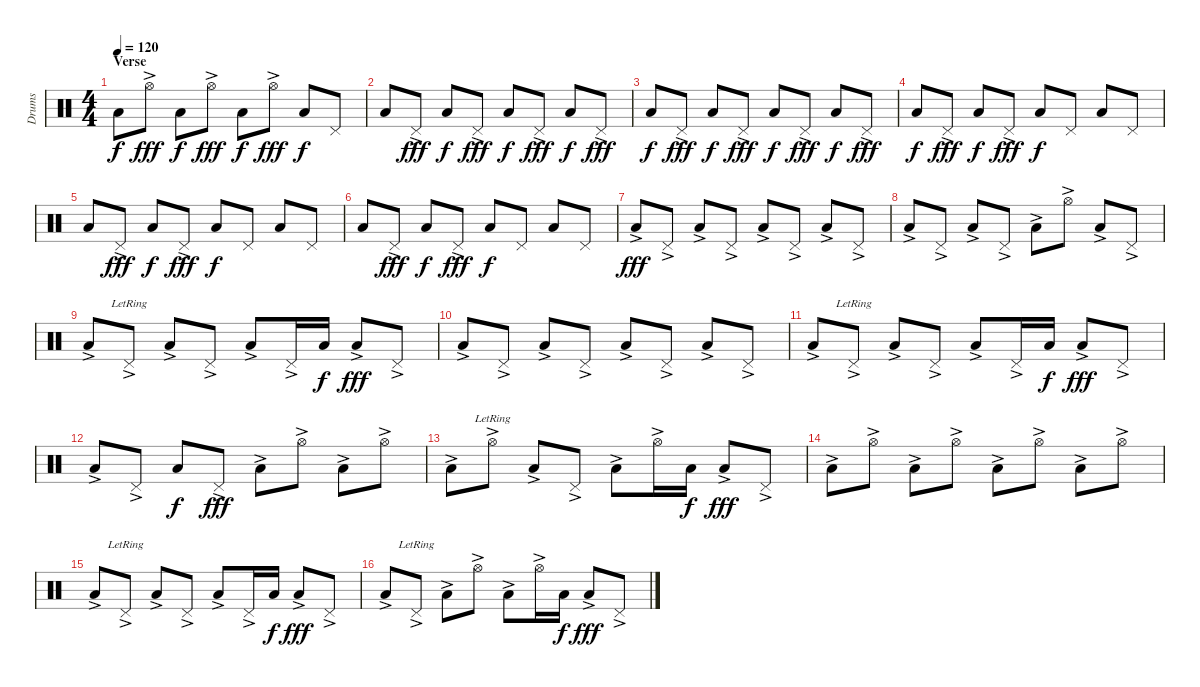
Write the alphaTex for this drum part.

\track ("Drums" "Drums") {instrument percussion}
\staff {score}
\articulation defaults
\ts (4 4)
\section ("" "Verse")
\tempo 120
\clef neutral
\ks c "Low Floor Tom (hit)".8{dy f} "Hi-Hat (open)"{ac}.8{dy fff} "Low Floor Tom (hit)".8{dy f} "Hi-Hat (open)"{ac}.8{dy fff} "Low Floor Tom (hit)".8{dy f} "Hi-Hat (open)"{ac}.8{dy fff} "Low Floor Tom (hit)".8{dy f} "Pedal Hi-Hat (hit)".8
|
"Low Floor Tom (hit)".8 "Pedal Hi-Hat (hit)"{ac}.8{dy fff} "Low Floor Tom (hit)".8{dy f} "Pedal Hi-Hat (hit)"{ac}.8{dy fff} "Low Floor Tom (hit)".8{dy f} "Pedal Hi-Hat (hit)"{ac}.8{dy fff} "Low Floor Tom (hit)".8{dy f} "Pedal Hi-Hat (hit)"{ac}.8{dy fff} |
"Low Floor Tom (hit)".8{dy f} "Pedal Hi-Hat (hit)"{ac}.8{dy fff} "Low Floor Tom (hit)".8{dy f} "Pedal Hi-Hat (hit)"{ac}.8{dy fff} "Low Floor Tom (hit)".8{dy f} "Pedal Hi-Hat (hit)"{ac}.8{dy fff} "Low Floor Tom (hit)".8{dy f} "Pedal Hi-Hat (hit)"{ac}.8{dy fff} |
"Low Floor Tom (hit)".8{dy f} "Pedal Hi-Hat (hit)"{ac}.8{dy fff} "Low Floor Tom (hit)".8{dy f} "Pedal Hi-Hat (hit)"{ac}.8{dy fff} "Low Floor Tom (hit)".8{dy f} "Pedal Hi-Hat (hit)".8 "Low Floor Tom (hit)".8 "Pedal Hi-Hat (hit)".8 |
"Low Floor Tom (hit)".8 "Pedal Hi-Hat (hit)"{ac}.8{dy fff} "Low Floor Tom (hit)".8{dy f} "Pedal Hi-Hat (hit)"{ac}.8{dy fff} "Low Floor Tom (hit)".8{dy f} "Pedal Hi-Hat (hit)".8 "Low Floor Tom (hit)".8 "Pedal Hi-Hat (hit)".8 |
"Low Floor Tom (hit)".8 "Pedal Hi-Hat (hit)"{ac}.8{dy fff} "Low Floor Tom (hit)".8{dy f} "Pedal Hi-Hat (hit)"{ac}.8{dy fff} "Low Floor Tom (hit)".8{dy f} "Pedal Hi-Hat (hit)".8 "Low Floor Tom (hit)".8 "Pedal Hi-Hat (hit)".8 |
"Low Floor Tom (hit)"{ac}.8{dy fff} "Pedal Hi-Hat (hit)"{ac}.8 "Low Floor Tom (hit)"{ac}.8 "Pedal Hi-Hat (hit)"{ac}.8 "Low Floor Tom (hit)"{ac}.8 "Pedal Hi-Hat (hit)"{ac}.8 "Low Floor Tom (hit)"{ac}.8 "Pedal Hi-Hat (hit)"{ac}.8 |
"Low Floor Tom (hit)"{ac}.8 "Pedal Hi-Hat (hit)"{ac}.8 "Low Floor Tom (hit)"{ac}.8 "Pedal Hi-Hat (hit)"{ac}.8 "Low Floor Tom (hit)"{ac}.8 "Hi-Hat (open)"{ac}.8 "Low Floor Tom (hit)"{ac}.8 "Pedal Hi-Hat (hit)"{ac}.8 |
"Low Floor Tom (hit)"{ac}.8 "Pedal Hi-Hat (hit)"{ac lr}.8 "Low Floor Tom (hit)"{ac}.8 "Pedal Hi-Hat (hit)"{ac}.8 "Low Floor Tom (hit)"{ac}.8 "Pedal Hi-Hat (hit)"{ac}.16 "Low Floor Tom (hit)".16{dy f} "Low Floor Tom (hit)"{ac}.8{dy fff} "Pedal Hi-Hat (hit)"{ac}.8 |
"Low Floor Tom (hit)"{ac}.8 "Pedal Hi-Hat (hit)"{ac}.8 "Low Floor Tom (hit)"{ac}.8 "Pedal Hi-Hat (hit)"{ac}.8 "Low Floor Tom (hit)"{ac}.8 "Pedal Hi-Hat (hit)"{ac}.8 "Low Floor Tom (hit)"{ac}.8 "Pedal Hi-Hat (hit)"{ac}.8 |
"Low Floor Tom (hit)"{ac}.8 "Pedal Hi-Hat (hit)"{ac lr}.8 "Low Floor Tom (hit)"{ac}.8 "Pedal Hi-Hat (hit)"{ac}.8 "Low Floor Tom (hit)"{ac}.8 "Pedal Hi-Hat (hit)"{ac}.16 "Low Floor Tom (hit)".16{dy f} "Low Floor Tom (hit)"{ac}.8{dy fff} "Pedal Hi-Hat (hit)"{ac}.8 |
"Low Floor Tom (hit)"{ac}.8 "Pedal Hi-Hat (hit)"{ac}.8 "Low Floor Tom (hit)".8{dy f} "Pedal Hi-Hat (hit)"{ac}.8{dy fff} "Low Floor Tom (hit)"{ac}.8 "Hi-Hat (open)"{ac}.8 "Low Floor Tom (hit)"{ac}.8 "Hi-Hat (open)"{ac}.8 |
"Low Floor Tom (hit)"{ac}.8 "Hi-Hat (open)"{ac lr}.8 "Low Floor Tom (hit)"{ac}.8 "Pedal Hi-Hat (hit)"{ac}.8 "Low Floor Tom (hit)"{ac}.8 "Hi-Hat (open)"{ac}.16 "Low Floor Tom (hit)".16{dy f} "Low Floor Tom (hit)"{ac}.8{dy fff} "Pedal Hi-Hat (hit)"{ac}.8 |
"Low Floor Tom (hit)"{ac}.8 "Hi-Hat (open)"{ac}.8 "Low Floor Tom (hit)"{ac}.8 "Hi-Hat (open)"{ac}.8 "Low Floor Tom (hit)"{ac}.8 "Hi-Hat (open)"{ac}.8 "Low Floor Tom (hit)"{ac}.8 "Hi-Hat (open)"{ac}.8 |
"Low Floor Tom (hit)"{ac}.8 "Pedal Hi-Hat (hit)"{ac lr}.8 "Low Floor Tom (hit)"{ac}.8 "Pedal Hi-Hat (hit)"{ac}.8 "Low Floor Tom (hit)"{ac}.8 "Pedal Hi-Hat (hit)"{ac}.16 "Low Floor Tom (hit)".16{dy f} "Low Floor Tom (hit)"{ac}.8{dy fff} "Pedal Hi-Hat (hit)"{ac}.8 |
"Low Floor Tom (hit)"{ac}.8 "Pedal Hi-Hat (hit)"{ac lr}.8 "Low Floor Tom (hit)"{ac}.8 "Hi-Hat (open)"{ac}.8 "Low Floor Tom (hit)"{ac}.8 "Hi-Hat (open)"{ac}.16 "Low Floor Tom (hit)".16{dy f} "Low Floor Tom (hit)"{ac}.8{dy fff} "Pedal Hi-Hat (hit)"{ac}.8
